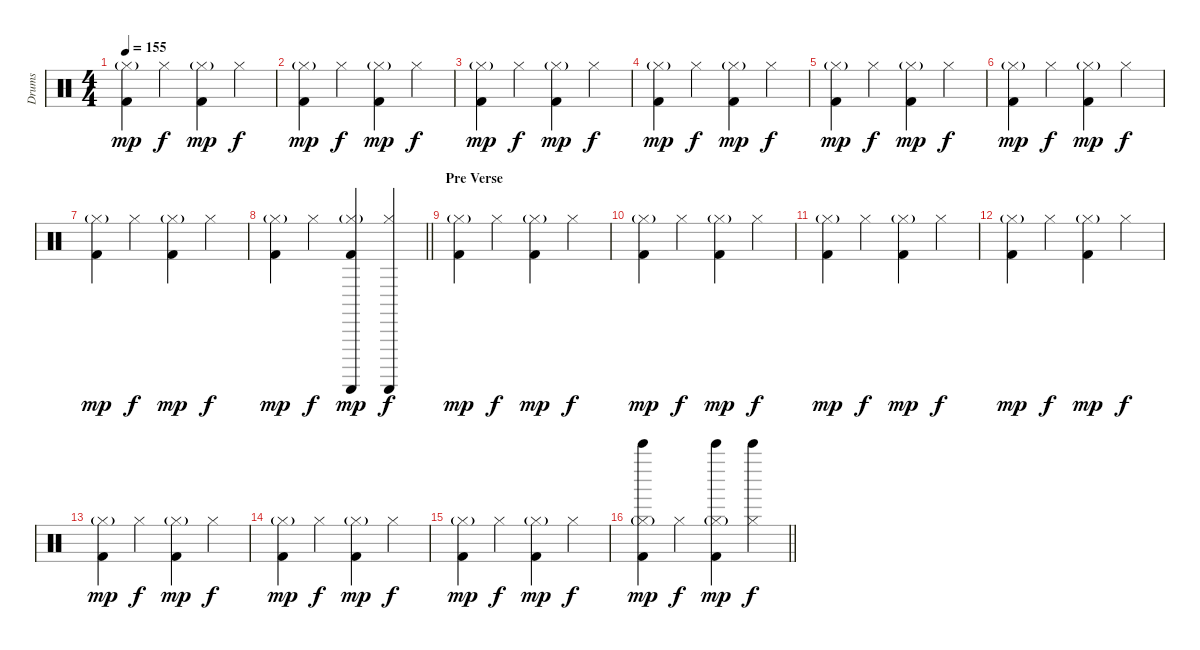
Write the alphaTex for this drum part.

\track ("Drums" "Drums") {instrument percussion}
\staff {score}
\articulation defaults
\ts (4 4)
\tempo 155
\clef neutral
\ks c
("Hi-Hat (closed)"{g} "Kick (hit) 2").4{dy mp} "Hi-Hat (closed)".4{dy f} ("Hi-Hat (closed)"{g} "Kick (hit) 2").4{dy mp} "Hi-Hat (closed)".4{dy f} |
("Hi-Hat (closed)"{g} "Kick (hit) 2").4{dy mp} "Hi-Hat (closed)".4{dy f} ("Hi-Hat (closed)"{g} "Kick (hit) 2").4{dy mp} "Hi-Hat (closed)".4{dy f} |
("Hi-Hat (closed)"{g} "Kick (hit) 2").4{dy mp} "Hi-Hat (closed)".4{dy f} ("Hi-Hat (closed)"{g} "Kick (hit) 2").4{dy mp} "Hi-Hat (closed)".4{dy f} |
("Hi-Hat (closed)"{g} "Kick (hit) 2").4{dy mp} "Hi-Hat (closed)".4{dy f} ("Hi-Hat (closed)"{g} "Kick (hit) 2").4{dy mp} "Hi-Hat (closed)".4{dy f} |
("Hi-Hat (closed)"{g} "Kick (hit) 2").4{dy mp} "Hi-Hat (closed)".4{dy f} ("Hi-Hat (closed)"{g} "Kick (hit) 2").4{dy mp} "Hi-Hat (closed)".4{dy f} |
("Hi-Hat (closed)"{g} "Kick (hit) 2").4{dy mp} "Hi-Hat (closed)".4{dy f} ("Hi-Hat (closed)"{g} "Kick (hit) 2").4{dy mp} "Hi-Hat (closed)".4{dy f} |
("Hi-Hat (closed)"{g} "Kick (hit) 2").4{dy mp} "Hi-Hat (closed)".4{dy f} ("Hi-Hat (closed)"{g} "Kick (hit) 2").4{dy mp} "Hi-Hat (closed)".4{dy f} |
\barLineRight lightlight
("Hi-Hat (closed)"{g} "Kick (hit) 2").4{dy mp} "Hi-Hat (closed)".4{dy f} ("Hi-Hat (closed)"{g} "Guiro (scrap-return)" "Kick (hit) 2").4{dy mp} ("Hi-Hat (closed)" "Guiro (scrap-return)").4{dy f} |
\section ("" "Pre Verse")
("Hi-Hat (closed)"{g} "Kick (hit) 2").4{dy mp} "Hi-Hat (closed)".4{dy f} ("Hi-Hat (closed)"{g} "Kick (hit) 2").4{dy mp} "Hi-Hat (closed)".4{dy f} |
("Hi-Hat (closed)"{g} "Kick (hit) 2").4{dy mp} "Hi-Hat (closed)".4{dy f} ("Hi-Hat (closed)"{g} "Kick (hit) 2").4{dy mp} "Hi-Hat (closed)".4{dy f} |
("Hi-Hat (closed)"{g} "Kick (hit) 2").4{dy mp} "Hi-Hat (closed)".4{dy f} ("Hi-Hat (closed)"{g} "Kick (hit) 2").4{dy mp} "Hi-Hat (closed)".4{dy f} |
("Hi-Hat (closed)"{g} "Kick (hit) 2").4{dy mp} "Hi-Hat (closed)".4{dy f} ("Hi-Hat (closed)"{g} "Kick (hit) 2").4{dy mp} "Hi-Hat (closed)".4{dy f} |
("Hi-Hat (closed)"{g} "Kick (hit) 2").4{dy mp} "Hi-Hat (closed)".4{dy f} ("Hi-Hat (closed)"{g} "Kick (hit) 2").4{dy mp} "Hi-Hat (closed)".4{dy f} |
("Hi-Hat (closed)"{g} "Kick (hit) 2").4{dy mp} "Hi-Hat (closed)".4{dy f} ("Hi-Hat (closed)"{g} "Kick (hit) 2").4{dy mp} "Hi-Hat (closed)".4{dy f} |
("Hi-Hat (closed)"{g} "Kick (hit) 2").4{dy mp} "Hi-Hat (closed)".4{dy f} ("Hi-Hat (closed)"{g} "Kick (hit) 2").4{dy mp} "Hi-Hat (closed)".4{dy f} |
\barLineRight lightlight
("Hi-Hat (closed)"{g} "Bell Tree (hit)" "Kick (hit) 2").4{dy mp} "Hi-Hat (closed)".4{dy f} ("Hi-Hat (closed)"{g} "Bell Tree (hit)" "Kick (hit) 2").4{dy mp} ("Hi-Hat (closed)" "Bell Tree (hit)").4{dy f}
